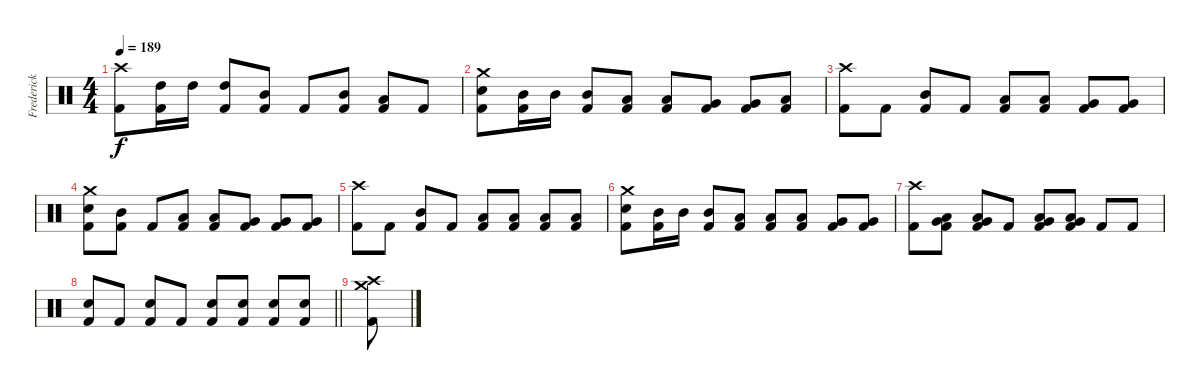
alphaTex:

\track ("Frederick Ehmke" "Frederick ") {instrument percussion}
\staff {score}
\articulation defaults
\ts (4 4)
\tempo 189
\clef neutral
\ks c
("Kick (hit) 2" "Crash high (hit)").8{dy f} ("Kick (hit) 2" "High Tom (hit)").16 "High Tom (hit)".16 ("Kick (hit) 2" "High Tom (hit)").8 ("Kick (hit) 2" "Mid Tom (hit)").8 "Kick (hit) 2".8 ("Kick (hit) 2" "Mid Tom (hit)").8 ("Kick (hit) 2" "Low Tom (hit)").8 "Kick (hit) 2".8 |
("Electric Snare (hit)" "Kick (hit) 2" "Crash medium (hit)").8 ("Kick (hit) 2" "Mid Tom (hit)").16 "Mid Tom (hit)".16 ("Kick (hit) 2" "Mid Tom (hit)").8 ("Kick (hit) 2" "Low Tom (hit)").8 ("Kick (hit) 2" "Low Tom (hit)").8 ("Kick (hit) 2" "Very Low Tom (hit)").8 ("Kick (hit) 2" "Very Low Tom (hit)").8 ("Kick (hit) 2" "Low Floor Tom (hit)").8 |
("Kick (hit) 2" "Crash high (hit)").8 "Kick (hit) 2".8 ("Kick (hit) 2" "Mid Tom (hit)").8 "Kick (hit) 2".8 ("Kick (hit) 2" "Low Tom (hit)").8 ("Kick (hit) 2" "Low Tom (hit)").8 ("Kick (hit) 2" "Very Low Tom (hit)").8 ("Kick (hit) 2" "Very Low Tom (hit)").8 |
("Electric Snare (hit)" "Kick (hit) 2" "Crash medium (hit)").8 ("Kick (hit) 2" "Mid Tom (hit)").8 "Kick (hit) 2".8 ("Kick (hit) 2" "Low Tom (hit)").8 ("Kick (hit) 2" "Low Tom (hit)").8 ("Kick (hit) 2" "Very Low Tom (hit)").8 ("Kick (hit) 2" "Very Low Tom (hit)").8 ("Kick (hit) 2" "Very Low Tom (hit)").8 |
("Crash high (hit)" "Kick (hit) 2").8 "Kick (hit) 2".8 ("Kick (hit) 2" "Mid Tom (hit)").8 "Kick (hit) 2".8 ("Kick (hit) 2" "Low Tom (hit)").8 ("Kick (hit) 2" "Low Tom (hit)").8 ("Kick (hit) 2" "Low Tom (hit)").8 ("Kick (hit) 2" "Low Tom (hit)").8 |
("Electric Snare (hit)" "Kick (hit) 2" "Crash medium (hit)").8 ("Kick (hit) 2" "Mid Tom (hit)").16 "Mid Tom (hit)".16 ("Kick (hit) 2" "Mid Tom (hit)").8 ("Kick (hit) 2" "Low Tom (hit)").8 ("Kick (hit) 2" "Low Tom (hit)").8 ("Kick (hit) 2" "Low Tom (hit)").8 ("Kick (hit) 2" "Very Low Tom (hit)").8 ("Kick (hit) 2" "Very Low Tom (hit)").8 |
("Crash high (hit)" "Kick (hit) 2").8 ("Kick (hit) 2" "Low Tom (hit)" "Very Low Tom (hit)").8 ("Kick (hit) 2" "Low Tom (hit)" "Very Low Tom (hit)").8 "Kick (hit) 2".8 ("Kick (hit) 2" "Low Tom (hit)" "Very Low Tom (hit)").8 ("Kick (hit) 2" "Low Tom (hit)" "Very Low Tom (hit)").8 "Kick (hit) 2".8 "Kick (hit) 2".8 |
\barLineRight lightlight
("Electric Snare (hit)" "Kick (hit) 2").8 "Kick (hit) 2".8 ("Electric Snare (hit)" "Kick (hit) 2").8 "Kick (hit) 2".8 ("Electric Snare (hit)" "Kick (hit) 2").8 ("Electric Snare (hit)" "Kick (hit) 2").8 ("Electric Snare (hit)" "Kick (hit) 2").8 ("Electric Snare (hit)" "Kick (hit) 2").8 |
("Kick (hit) 2" "Crash high (hit)" "Crash medium (hit)").8
